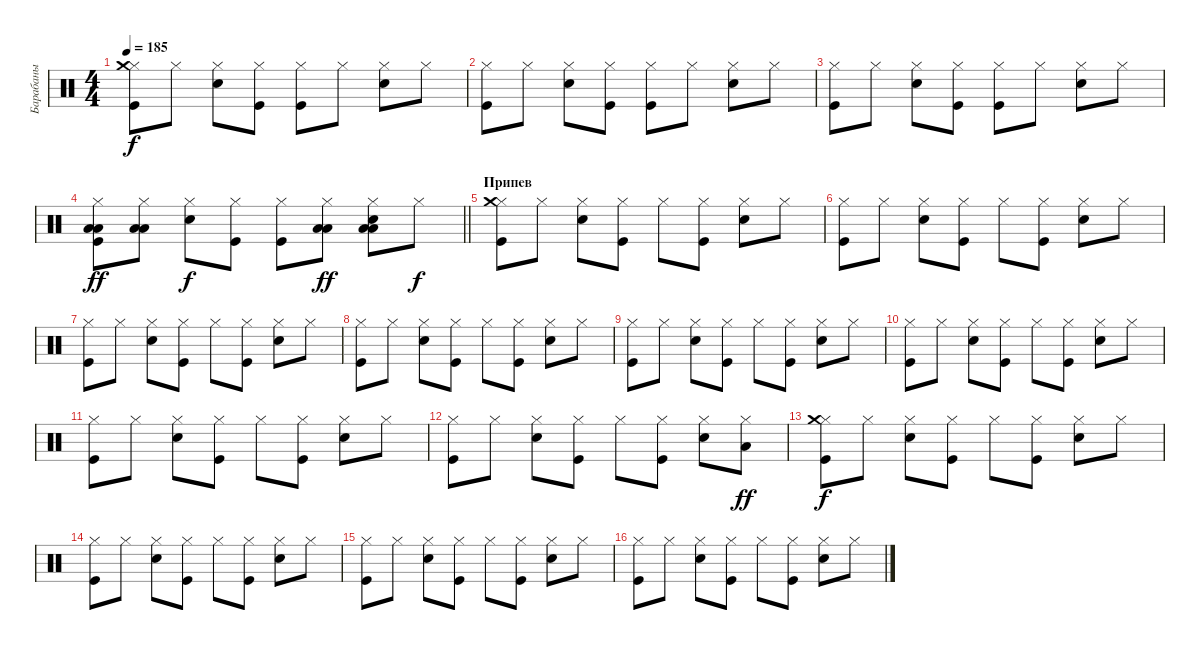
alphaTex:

\track ("Барабаны" "Барабаны") {instrument percussion}
\staff {score}
\articulation defaults
\ts (4 4)
\tempo 185
\clef neutral
\ks c
("Kick (hit)" "Hi-Hat (closed)" "Crash medium (hit)").8{dy f} "Hi-Hat (closed)".8 ("Snare (hit) 2" "Hi-Hat (closed)").8 ("Kick (hit)" "Hi-Hat (closed)").8 ("Kick (hit)" "Hi-Hat (closed)").8 "Hi-Hat (closed)".8 ("Snare (hit) 2" "Hi-Hat (closed)").8 "Hi-Hat (closed)".8 |
("Kick (hit)" "Hi-Hat (closed)").8 "Hi-Hat (closed)".8 ("Snare (hit) 2" "Hi-Hat (closed)").8 ("Kick (hit)" "Hi-Hat (closed)").8 ("Kick (hit)" "Hi-Hat (closed)").8 "Hi-Hat (closed)".8 ("Snare (hit) 2" "Hi-Hat (closed)").8 "Hi-Hat (closed)".8 |
("Kick (hit)" "Hi-Hat (closed)").8 "Hi-Hat (closed)".8 ("Snare (hit) 2" "Hi-Hat (closed)").8 ("Kick (hit)" "Hi-Hat (closed)").8 ("Kick (hit)" "Hi-Hat (closed)").8 "Hi-Hat (closed)".8 ("Snare (hit) 2" "Hi-Hat (closed)").8 "Hi-Hat (closed)".8 |
\barLineRight lightlight
("Kick (hit)" "Hi-Hat (closed)" "Low Floor Tom (hit)" "Low Floor Tom (hit)").8{dy ff} ("Hi-Hat (closed)" "Low Floor Tom (hit)" "Low Floor Tom (hit)").8 ("Snare (hit) 2" "Hi-Hat (closed)").8{dy f} ("Kick (hit)" "Hi-Hat (closed)").8 ("Kick (hit)" "Hi-Hat (closed)").8 ("Hi-Hat (closed)" "Low Floor Tom (hit)" "Low Floor Tom (hit)").8{dy ff} ("Snare (hit) 2" "Hi-Hat (closed)" "Low Floor Tom (hit)" "Low Floor Tom (hit)").8 "Hi-Hat (closed)".8{dy f} |
\section ("" "Припев")
("Kick (hit)" "Hi-Hat (closed)" "Crash medium (hit)").8 "Hi-Hat (closed)".8 ("Snare (hit) 2" "Hi-Hat (closed)").8 ("Kick (hit)" "Hi-Hat (closed)").8 "Hi-Hat (closed)".8 ("Kick (hit)" "Hi-Hat (closed)").8 ("Snare (hit) 2" "Hi-Hat (closed)").8 "Hi-Hat (closed)".8 |
("Kick (hit)" "Hi-Hat (closed)").8 "Hi-Hat (closed)".8 ("Snare (hit) 2" "Hi-Hat (closed)").8 ("Kick (hit)" "Hi-Hat (closed)").8 "Hi-Hat (closed)".8 ("Kick (hit)" "Hi-Hat (closed)").8 ("Snare (hit) 2" "Hi-Hat (closed)").8 "Hi-Hat (closed)".8 |
("Kick (hit)" "Hi-Hat (closed)").8 "Hi-Hat (closed)".8 ("Snare (hit) 2" "Hi-Hat (closed)").8 ("Kick (hit)" "Hi-Hat (closed)").8 "Hi-Hat (closed)".8 ("Kick (hit)" "Hi-Hat (closed)").8 ("Snare (hit) 2" "Hi-Hat (closed)").8 "Hi-Hat (closed)".8 |
("Kick (hit)" "Hi-Hat (closed)").8 "Hi-Hat (closed)".8 ("Snare (hit) 2" "Hi-Hat (closed)").8 ("Kick (hit)" "Hi-Hat (closed)").8 "Hi-Hat (closed)".8 ("Kick (hit)" "Hi-Hat (closed)").8 ("Snare (hit) 2" "Hi-Hat (closed)").8 "Hi-Hat (closed)".8 |
("Kick (hit)" "Hi-Hat (closed)").8 "Hi-Hat (closed)".8 ("Snare (hit) 2" "Hi-Hat (closed)").8 ("Kick (hit)" "Hi-Hat (closed)").8 "Hi-Hat (closed)".8 ("Kick (hit)" "Hi-Hat (closed)").8 ("Snare (hit) 2" "Hi-Hat (closed)").8 "Hi-Hat (closed)".8 |
("Kick (hit)" "Hi-Hat (closed)").8 "Hi-Hat (closed)".8 ("Snare (hit) 2" "Hi-Hat (closed)").8 ("Kick (hit)" "Hi-Hat (closed)").8 "Hi-Hat (closed)".8 ("Kick (hit)" "Hi-Hat (closed)").8 ("Snare (hit) 2" "Hi-Hat (closed)").8 "Hi-Hat (closed)".8 |
("Kick (hit)" "Hi-Hat (closed)").8 "Hi-Hat (closed)".8 ("Snare (hit) 2" "Hi-Hat (closed)").8 ("Kick (hit)" "Hi-Hat (closed)").8 "Hi-Hat (closed)".8 ("Kick (hit)" "Hi-Hat (closed)").8 ("Snare (hit) 2" "Hi-Hat (closed)").8 "Hi-Hat (closed)".8 |
("Kick (hit)" "Hi-Hat (closed)").8 "Hi-Hat (closed)".8 ("Snare (hit) 2" "Hi-Hat (closed)").8 ("Kick (hit)" "Hi-Hat (closed)").8 "Hi-Hat (closed)".8 ("Kick (hit)" "Hi-Hat (closed)").8 ("Snare (hit) 2" "Hi-Hat (closed)").8 ("Hi-Hat (closed)" "Low Tom (hit)").8{dy ff} |
("Kick (hit)" "Hi-Hat (closed)" "Crash medium (hit)").8{dy f} "Hi-Hat (closed)".8 ("Snare (hit) 2" "Hi-Hat (closed)").8 ("Kick (hit)" "Hi-Hat (closed)").8 "Hi-Hat (closed)".8 ("Kick (hit)" "Hi-Hat (closed)").8 ("Snare (hit) 2" "Hi-Hat (closed)").8 "Hi-Hat (closed)".8 |
("Kick (hit)" "Hi-Hat (closed)").8 "Hi-Hat (closed)".8 ("Snare (hit) 2" "Hi-Hat (closed)").8 ("Kick (hit)" "Hi-Hat (closed)").8 "Hi-Hat (closed)".8 ("Kick (hit)" "Hi-Hat (closed)").8 ("Snare (hit) 2" "Hi-Hat (closed)").8 "Hi-Hat (closed)".8 |
("Kick (hit)" "Hi-Hat (closed)").8 "Hi-Hat (closed)".8 ("Snare (hit) 2" "Hi-Hat (closed)").8 ("Kick (hit)" "Hi-Hat (closed)").8 "Hi-Hat (closed)".8 ("Kick (hit)" "Hi-Hat (closed)").8 ("Snare (hit) 2" "Hi-Hat (closed)").8 "Hi-Hat (closed)".8 |
("Kick (hit)" "Hi-Hat (closed)").8 "Hi-Hat (closed)".8 ("Snare (hit) 2" "Hi-Hat (closed)").8 ("Kick (hit)" "Hi-Hat (closed)").8 "Hi-Hat (closed)".8 ("Kick (hit)" "Hi-Hat (closed)").8 ("Snare (hit) 2" "Hi-Hat (closed)").8 "Hi-Hat (closed)".8
